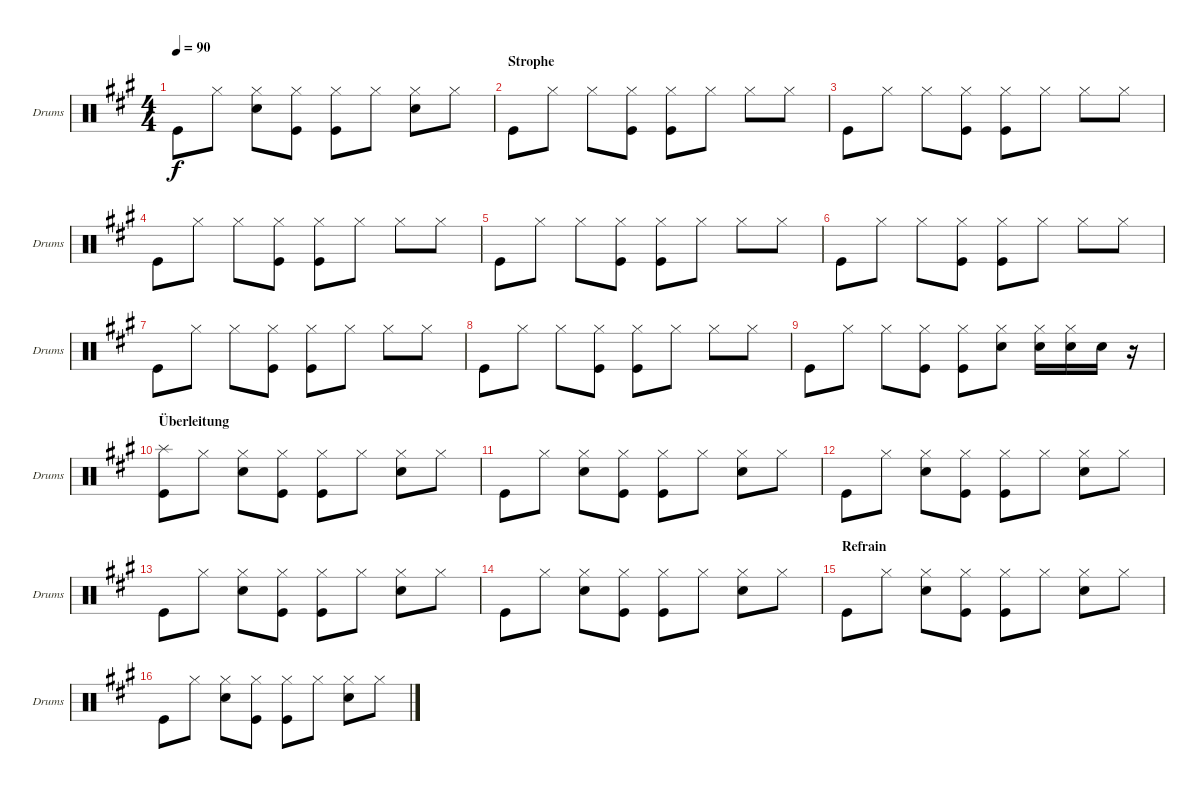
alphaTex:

\bracketExtendMode groupsimilarinstruments
\singleTrackTrackNamePolicy allsystems
\multiTrackTrackNamePolicy allsystems
\firstSystemTrackNameOrientation horizontal
\otherSystemsTrackNameOrientation horizontal
\track ("drum" "Drums") {instrument percussion}
\staff {score}
\articulation defaults
\ts (4 4)
\scale
0.151125
\tempo 90
\accidentals auto
\clef neutral
\ottava regular
\simile none
\ks a "Kick (hit)".8{dy f} "Hi-Hat (closed)".8
("Hi-Hat (closed)" "Snare (hit) 2").8 ("Hi-Hat (closed)" "Kick (hit)").8 ("Hi-Hat (closed)" "Kick (hit)").8 "Hi-Hat (closed)".8 ("Hi-Hat (closed)" "Snare (hit) 2").8 "Hi-Hat (closed)".8 |
\section ("" "Strophe")
\scale
0.282051 "Kick (hit)".8 "Hi-Hat (closed)".8 "Hi-Hat (closed)".8 ("Hi-Hat (closed)" "Kick (hit)").8 ("Hi-Hat (closed)" "Kick (hit)").8 "Hi-Hat (closed)".8 "Hi-Hat (closed)".8 "Hi-Hat (closed)".8 |
\scale
0.435897 "Kick (hit)".8 "Hi-Hat (closed)".8 "Hi-Hat (closed)".8 ("Hi-Hat (closed)" "Kick (hit)").8 ("Hi-Hat (closed)" "Kick (hit)").8 "Hi-Hat (closed)".8 "Hi-Hat (closed)".8 "Hi-Hat (closed)".8 |
\scale
0.282051 "Kick (hit)".8 "Hi-Hat (closed)".8 "Hi-Hat (closed)".8 ("Hi-Hat (closed)" "Kick (hit)").8 ("Hi-Hat (closed)" "Kick (hit)").8 "Hi-Hat (closed)".8 "Hi-Hat (closed)".8 "Hi-Hat (closed)".8 |
\scale
0.377778 "Kick (hit)".8 "Hi-Hat (closed)".8 "Hi-Hat (closed)".8 ("Hi-Hat (closed)" "Kick (hit)").8 ("Hi-Hat (closed)" "Kick (hit)").8 "Hi-Hat (closed)".8 "Hi-Hat (closed)".8 "Hi-Hat (closed)".8 |
\scale
0.244444 "Kick (hit)".8 "Hi-Hat (closed)".8 "Hi-Hat (closed)".8 ("Hi-Hat (closed)" "Kick (hit)").8 ("Hi-Hat (closed)" "Kick (hit)").8 "Hi-Hat (closed)".8 "Hi-Hat (closed)".8 "Hi-Hat (closed)".8 |
\scale
0.377778 "Kick (hit)".8 "Hi-Hat (closed)".8 "Hi-Hat (closed)".8 ("Hi-Hat (closed)" "Kick (hit)").8 ("Hi-Hat (closed)" "Kick (hit)").8 "Hi-Hat (closed)".8 "Hi-Hat (closed)".8 "Hi-Hat (closed)".8 |
\scale
0.314286 "Kick (hit)".8 "Hi-Hat (closed)".8 "Hi-Hat (closed)".8 ("Hi-Hat (closed)" "Kick (hit)").8 ("Hi-Hat (closed)" "Kick (hit)").8 "Hi-Hat (closed)".8 "Hi-Hat (closed)".8 "Hi-Hat (closed)".8 |
\scale
0.485714 "Kick (hit)".8 "Hi-Hat (closed)".8 "Hi-Hat (closed)".8 ("Hi-Hat (closed)" "Kick (hit)").8 ("Hi-Hat (closed)" "Kick (hit)").8 ("Hi-Hat (closed)" "Snare (hit) 2").8 ("Hi-Hat (closed)" "Snare (hit) 2").16 ("Hi-Hat (closed)" "Snare (hit) 2").16 "Snare (hit) 2".16 r.16 |
\section ("" "Überleitung")
\scale
0.2 ("Kick (hit)" "Splash (hit)").8 "Hi-Hat (closed)".8 ("Hi-Hat (closed)" "Snare (hit) 2").8 ("Hi-Hat (closed)" "Kick (hit)").8 ("Hi-Hat (closed)" "Kick (hit)").8 "Hi-Hat (closed)".8 ("Hi-Hat (closed)" "Snare (hit) 2").8 "Hi-Hat (closed)".8 |
\scale
0.28 "Kick (hit)".8 "Hi-Hat (closed)".8 ("Hi-Hat (closed)" "Snare (hit) 2").8 ("Hi-Hat (closed)" "Kick (hit)").8 ("Hi-Hat (closed)" "Kick (hit)").8 "Hi-Hat (closed)".8 ("Hi-Hat (closed)" "Snare (hit) 2").8 "Hi-Hat (closed)".8 |
\scale
0.28 "Kick (hit)".8 "Hi-Hat (closed)".8 ("Hi-Hat (closed)" "Snare (hit) 2").8 ("Hi-Hat (closed)" "Kick (hit)").8 ("Hi-Hat (closed)" "Kick (hit)").8 "Hi-Hat (closed)".8 ("Hi-Hat (closed)" "Snare (hit) 2").8 "Hi-Hat (closed)".8 |
\scale
0.44 "Kick (hit)".8 "Hi-Hat (closed)".8 ("Hi-Hat (closed)" "Snare (hit) 2").8 ("Hi-Hat (closed)" "Kick (hit)").8 ("Hi-Hat (closed)" "Kick (hit)").8 "Hi-Hat (closed)".8 ("Hi-Hat (closed)" "Snare (hit) 2").8 "Hi-Hat (closed)".8 |
\scale
0.405405 "Kick (hit)".8 "Hi-Hat (closed)".8 ("Hi-Hat (closed)" "Snare (hit) 2").8 ("Hi-Hat (closed)" "Kick (hit)").8 ("Hi-Hat (closed)" "Kick (hit)").8 "Hi-Hat (closed)".8 ("Hi-Hat (closed)" "Snare (hit) 2").8 "Hi-Hat (closed)".8 |
\section ("" "Refrain")
\scale
0.297297 "Kick (hit)".8 "Hi-Hat (closed)".8 ("Hi-Hat (closed)" "Snare (hit) 2").8 ("Hi-Hat (closed)" "Kick (hit)").8 ("Hi-Hat (closed)" "Kick (hit)").8 "Hi-Hat (closed)".8 ("Hi-Hat (closed)" "Snare (hit) 2").8 "Hi-Hat (closed)".8 |
\scale
0.297297 "Kick (hit)".8 "Hi-Hat (closed)".8 ("Hi-Hat (closed)" "Snare (hit) 2").8 ("Hi-Hat (closed)" "Kick (hit)").8 ("Hi-Hat (closed)" "Kick (hit)").8 "Hi-Hat (closed)".8 ("Hi-Hat (closed)" "Snare (hit) 2").8 "Hi-Hat (closed)".8
